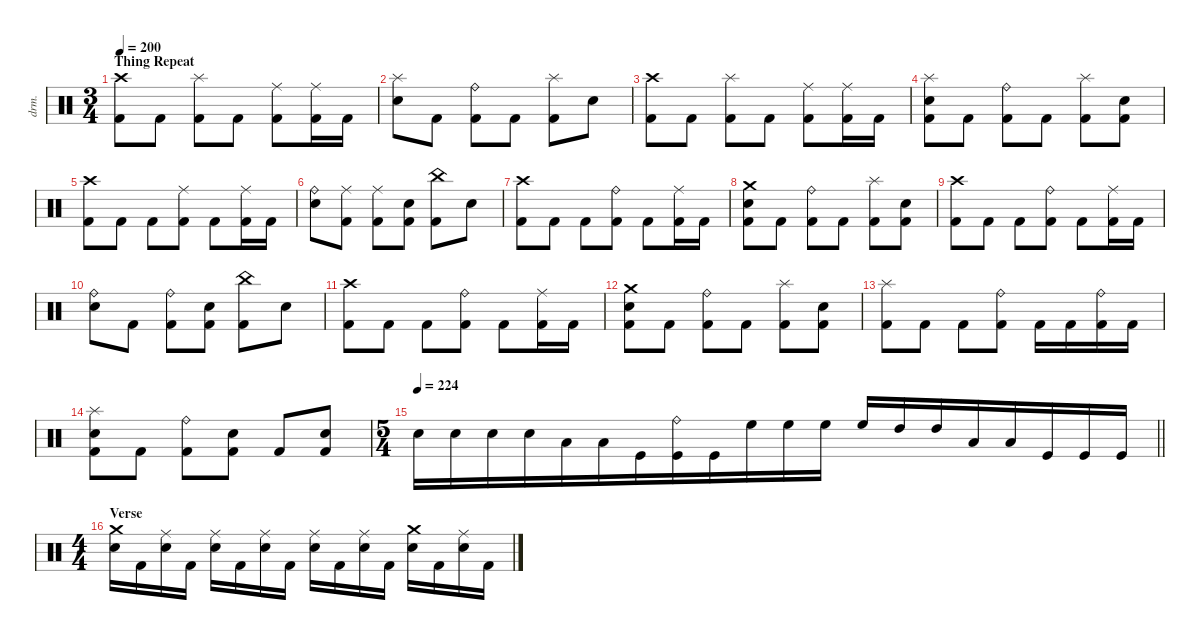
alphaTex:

\defaultSystemsLayout 4
\hideDynamics
\bracketExtendMode nobrackets
\otherSystemsTrackNameOrientation horizontal
\track ("Percussion" "drm.") {instrument percussion}
\staff {score}
\articulation defaults
\ts (3 4)
\beaming (8 2 2 2)
\section ("" "Thing Repeat")
\tempo 200
\clef neutral
\ks c
("Crash high (hit)" "Kick (hit) 2").8{dy f beam Down} "Kick (hit) 2".8{beam Down} ("Splash (hit)" "Kick (hit) 2").8{beam Down} "Kick (hit) 2".8{beam Down} ("Ride (middle)" "Kick (hit) 2").8{beam Down} ("Ride (middle)" "Kick (hit) 2").16{beam Down} "Kick (hit) 2".16{beam Down} |
("Splash (hit)" "Snare (hit) 2").8{beam Down} "Kick (hit) 2".8{beam Down} ("Ride (bell)" "Kick (hit) 2").8{beam Down} "Kick (hit) 2".8{beam Down} ("Splash (hit)" "Kick (hit) 2").8{beam Down} "Snare (hit) 2".8{beam Down} |
("Crash high (hit)" "Kick (hit) 2").8{beam Down} "Kick (hit) 2".8{beam Down} ("Splash (hit)" "Kick (hit) 2").8{beam Down} "Kick (hit) 2".8{beam Down} ("Ride (middle)" "Kick (hit) 2").8{beam Down} ("Ride (middle)" "Kick (hit) 2").16{beam Down} "Kick (hit) 2".16{beam Down} |
("Splash (hit)" "Snare (hit) 2" "Kick (hit) 2").8{beam Down} "Kick (hit) 2".8{beam Down} ("Ride (bell)" "Kick (hit) 2").8{beam Down} "Kick (hit) 2".8{beam Down} ("Splash (hit)" "Kick (hit) 2").8{beam Down} ("Snare (hit) 2" "Kick (hit) 2").8{beam Down} |
("Crash high (hit)" "Kick (hit) 2").8{beam Down} "Kick (hit) 2".8{beam Down} "Kick (hit) 2".8{beam Down} ("Ride (middle)" "Kick (hit) 2").8{beam Down} "Kick (hit) 2".8{beam Down} ("Ride (middle)" "Kick (hit) 2").16{beam Down} "Kick (hit) 2".16{beam Down} |
("Ride (bell)" "Snare (hit) 2").8{beam Down} ("Ride (middle)" "Kick (hit) 2").8{beam Down} ("Ride (middle)" "Kick (hit) 2").8{beam Down} ("Snare (hit) 2" "Kick (hit) 2").8{beam Down} ("China (hit)" "Kick (hit) 2").8{beam Down} "Snare (hit) 2".8{beam Down} |
("Crash high (hit)" "Kick (hit) 2").8{beam Down} "Kick (hit) 2".8{beam Down} "Kick (hit) 2".8{beam Down} ("Ride (bell)" "Kick (hit) 2").8{beam Down} "Kick (hit) 2".8{beam Down} ("Ride (middle)" "Kick (hit) 2").16{beam Down} "Kick (hit) 2".16{beam Down} |
("Crash medium (hit)" "Snare (hit) 2" "Kick (hit) 2").8{beam Down} "Kick (hit) 2".8{beam Down} ("Ride (bell)" "Kick (hit) 2").8{beam Down} "Kick (hit) 2".8{beam Down} ("Splash (hit)" "Kick (hit) 2").8{beam Down} ("Snare (hit) 2" "Kick (hit) 2").8{beam Down} |
("Crash high (hit)" "Kick (hit) 2").8{beam Down} "Kick (hit) 2".8{beam Down} "Kick (hit) 2".8{beam Down} ("Ride (bell)" "Kick (hit) 2").8{beam Down} "Kick (hit) 2".8{beam Down} ("Ride (middle)" "Kick (hit) 2").16{beam Down} "Kick (hit) 2".16{beam Down} |
("Ride (bell)" "Snare (hit) 2").8{beam Down} "Kick (hit) 2".8{beam Down} ("Ride (bell)" "Kick (hit) 2").8{beam Down} ("Snare (hit) 2" "Kick (hit) 2").8{beam Down} ("China (hit)" "Kick (hit) 2").8{beam Down} "Snare (hit) 2".8{beam Down} |
("Crash high (hit)" "Kick (hit) 2").8{beam Down} "Kick (hit) 2".8{beam Down} "Kick (hit) 2".8{beam Down} ("Ride (bell)" "Kick (hit) 2").8{beam Down} "Kick (hit) 2".8{beam Down} ("Ride (middle)" "Kick (hit) 2").16{beam Down} "Kick (hit) 2".16{beam Down} |
("Crash medium (hit)" "Snare (hit) 2" "Kick (hit) 2").8{beam Down} "Kick (hit) 2".8{beam Down} ("Ride (bell)" "Kick (hit) 2").8{beam Down} "Kick (hit) 2".8{beam Down} ("Splash (hit)" "Kick (hit) 2").8{beam Down} ("Snare (hit) 2" "Kick (hit) 2").8{beam Down} |
("Splash (hit)" "Kick (hit) 2").8{beam Down} "Kick (hit) 2".8{beam Down} "Kick (hit) 2".8{beam Down} ("Ride (bell)" "Kick (hit) 2").8{beam Down} "Kick (hit) 2".16{beam Down} "Kick (hit) 2".16{beam Down} ("Ride (bell)" "Kick (hit) 2").16{beam Down} "Kick (hit) 2".16{beam Down} |
("Splash (hit)" "Snare (hit) 2" "Kick (hit) 2").8{beam Down} "Kick (hit) 2".8{beam Down} ("Ride (bell)" "Kick (hit) 2").8{beam Down} ("Snare (hit) 2" "Kick (hit) 2").8{beam Down} "Kick (hit) 2".8{beam Up} ("Snare (hit) 2" "Kick (hit) 2").8{beam Up} |
\ts (5 4)
\beaming (8 6 4)
\tempo 224
\barLineRight lightlight "Snare (hit) 2".16{beam Down} "Snare (hit) 2".16{beam Down} "Snare (hit) 2".16{beam Down} "Snare (hit) 2".16{beam Down} "Low Tom (hit)".16{beam Down} "Low Tom (hit)".16{beam Down} "Kick (hit)".16{beam Down}
("Ride (bell)" "Kick (hit)").16{beam Down} "Kick (hit)".16{beam Down} "High Floor Tom (hit)".16{beam Down} "High Floor Tom (hit)".16{beam Down} "High Floor Tom (hit)".16{beam Down} "High Floor Tom (hit)".16{beam Up} "High Tom (hit)".16{beam Up} "High Tom (hit)".16{beam Up} "Low Tom (hit)".16{beam Up} "Low Tom (hit)".16{beam Up} "Kick (hit)".16{beam Up} "Kick (hit)".16{beam Up} "Kick (hit)".16{beam Up} |
\ts (4 4)
\beaming (8 2 2 2 2)
\section ("" "Verse")
("Crash medium (hit)" "Snare (hit) 2").16{beam Down} "Kick (hit) 2".16{beam Down} ("Ride (middle)" "Snare (hit) 2").16{beam Down} "Kick (hit) 2".16{beam Down} ("Ride (middle)" "Snare (hit) 2").16{beam Down} "Kick (hit) 2".16{beam Down} ("Ride (middle)" "Snare (hit) 2").16{beam Down} "Kick (hit) 2".16{beam Down} ("Ride (middle)" "Snare (hit) 2").16{beam Down} "Kick (hit) 2".16{beam Down} ("Ride (middle)" "Snare (hit) 2").16{beam Down} "Kick (hit) 2".16{beam Down} ("Crash medium (hit)" "Snare (hit) 2").16{beam Down} "Kick (hit) 2".16{beam Down} ("Ride (middle)" "Snare (hit) 2").16{beam Down} "Kick (hit) 2".16{beam Down}
